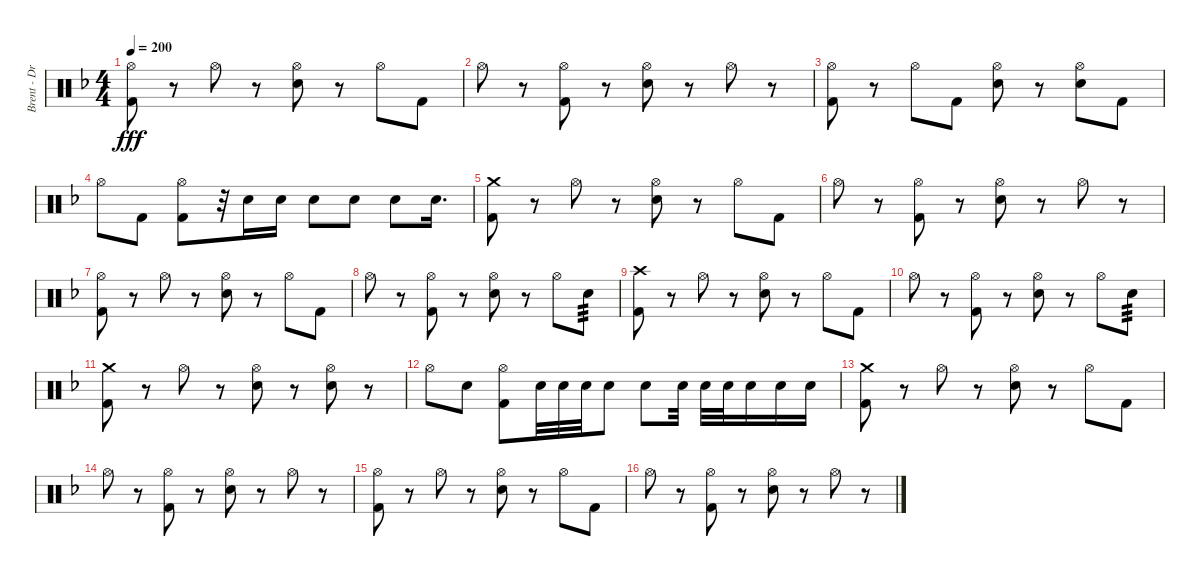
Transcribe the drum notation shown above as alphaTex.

\track ("Brent - Drums" "Brent - Dr") {instrument percussion}
\staff {score}
\articulation defaults
\ts (4 4)
\tempo 200
\clef neutral
\ks dminor
("Hi-Hat (open)" "Kick (hit) 2").8{dy fff} r.8 "Hi-Hat (open)".8 r.8 ("Hi-Hat (open)" "Snare (hit) 2").8 r.8 "Hi-Hat (open)".8 "Kick (hit) 2".8 |
"Hi-Hat (open)".8 r.8 ("Hi-Hat (open)" "Kick (hit) 2").8 r.8 ("Hi-Hat (open)" "Snare (hit) 2").8 r.8 "Hi-Hat (open)".8 r.8 |
("Hi-Hat (open)" "Kick (hit) 2").8 r.8 "Hi-Hat (open)".8 "Kick (hit) 2".8 ("Hi-Hat (open)" "Snare (hit) 2").8 r.8 ("Hi-Hat (open)" "Snare (hit) 2").8 "Kick (hit) 2".8 |
"Hi-Hat (open)".8 "Kick (hit) 2".8 ("Hi-Hat (open)" "Kick (hit) 2").8 r.32 "Snare (hit) 2".16 "Snare (hit) 2".16 "Snare (hit) 2".8 "Snare (hit) 2".8 "Snare (hit) 2".8 "Snare (hit) 2".16{d} |
("Crash medium (hit)" "Kick (hit) 2").8 r.8 "Hi-Hat (open)".8 r.8 ("Hi-Hat (open)" "Snare (hit) 2").8 r.8 "Hi-Hat (open)".8 "Kick (hit) 2".8 |
"Hi-Hat (open)".8 r.8 ("Hi-Hat (open)" "Kick (hit) 2").8 r.8 ("Hi-Hat (open)" "Snare (hit) 2").8 r.8 "Hi-Hat (open)".8 r.8 |
("Hi-Hat (open)" "Kick (hit) 2").8 r.8 "Hi-Hat (open)".8 r.8 ("Hi-Hat (open)" "Snare (hit) 2").8 r.8 "Hi-Hat (open)".8 "Kick (hit) 2".8 |
"Hi-Hat (open)".8 r.8 ("Hi-Hat (open)" "Kick (hit) 2").8 r.8 ("Hi-Hat (open)" "Snare (hit) 2").8 r.8 "Hi-Hat (open)".8 "Snare (hit) 2".8{tp 3} |
("Crash high (hit)" "Kick (hit) 2").8 r.8 "Hi-Hat (open)".8 r.8 ("Hi-Hat (open)" "Snare (hit) 2").8 r.8 "Hi-Hat (open)".8 "Kick (hit) 2".8 |
"Hi-Hat (open)".8 r.8 ("Hi-Hat (open)" "Kick (hit) 2").8 r.8 ("Hi-Hat (open)" "Snare (hit) 2").8 r.8 "Hi-Hat (open)".8 "Snare (hit) 2".8{tp 3} |
("Crash medium (hit)" "Kick (hit) 2").8 r.8 "Hi-Hat (open)".8 r.8 ("Hi-Hat (open)" "Snare (hit) 2").8 r.8 ("Hi-Hat (open)" "Snare (hit) 2").8 r.8 |
"Hi-Hat (open)".8 "Snare (hit) 2".8 ("Hi-Hat (open)" "Kick (hit) 2").8 "Snare (hit) 2".32 "Snare (hit) 2".32 "Snare (hit) 2".32 "Snare (hit) 2".8 "Snare (hit) 2".8 "Snare (hit) 2".32 "Snare (hit) 2".32 "Snare (hit) 2".32 "Snare (hit) 2".16 "Snare (hit) 2".16 "Snare (hit) 2".16 |
("Crash medium (hit)" "Kick (hit) 2").8 r.8 "Hi-Hat (open)".8 r.8 ("Hi-Hat (open)" "Snare (hit) 2").8 r.8 "Hi-Hat (open)".8 "Kick (hit) 2".8 |
"Hi-Hat (open)".8 r.8 ("Hi-Hat (open)" "Kick (hit) 2").8 r.8 ("Hi-Hat (open)" "Snare (hit) 2").8 r.8 "Hi-Hat (open)".8 r.8 |
("Hi-Hat (open)" "Kick (hit) 2").8 r.8 "Hi-Hat (open)".8 r.8 ("Hi-Hat (open)" "Snare (hit) 2").8 r.8 "Hi-Hat (open)".8 "Kick (hit) 2".8 |
"Hi-Hat (open)".8 r.8 ("Hi-Hat (open)" "Kick (hit) 2").8 r.8 ("Hi-Hat (open)" "Snare (hit) 2").8 r.8 "Hi-Hat (open)".8 r.8
